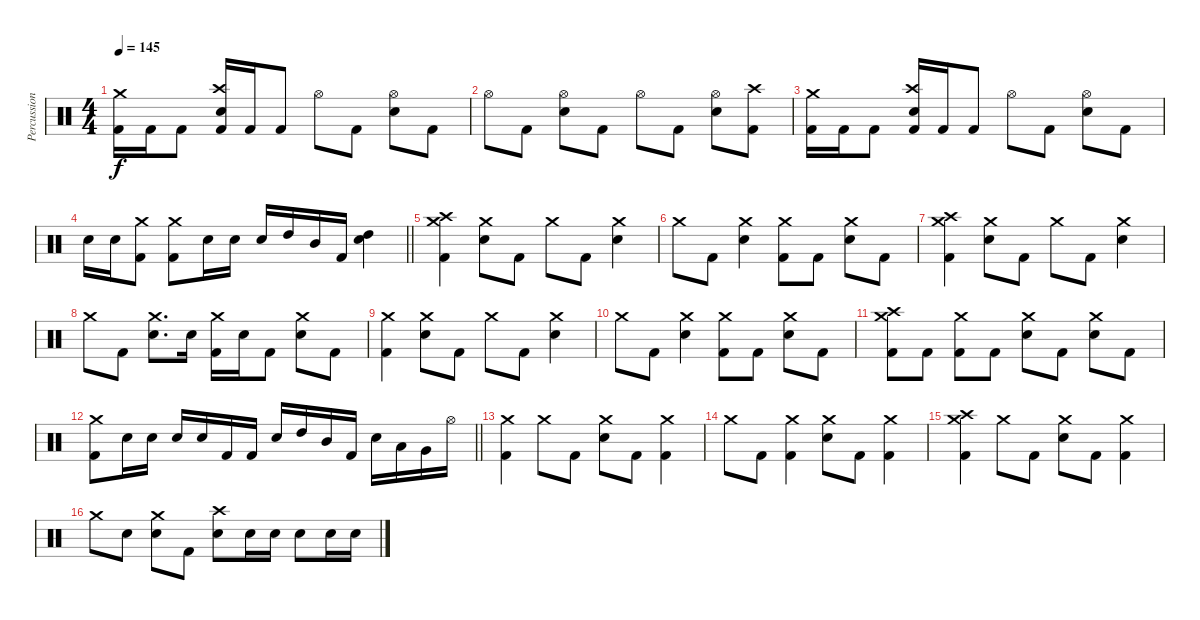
\track ("Percussion" "Percussion") {instrument percussion}
\staff {score}
\articulation defaults
\ts (4 4)
\tempo 145
\clef neutral
\ks c
("Crash medium (hit)" "Kick (hit) 2").16{dy f} "Kick (hit) 2".16 "Kick (hit) 2".8 ("Crash high (hit)" "Electric Snare (hit)" "Kick (hit) 2").16 "Kick (hit) 2".16 "Kick (hit) 2".8 "Hi-Hat (open)".8 "Kick (hit) 2".8 ("Hi-Hat (open)" "Electric Snare (hit)").8 "Kick (hit) 2".8 |
"Hi-Hat (open)".8 "Kick (hit) 2".8 ("Hi-Hat (open)" "Electric Snare (hit)").8 "Kick (hit) 2".8 "Hi-Hat (open)".8 "Kick (hit) 2".8 ("Hi-Hat (open)" "Electric Snare (hit)").8 ("Crash high (hit)" "Kick (hit) 2").8 |
("Crash medium (hit)" "Kick (hit) 2").16 "Kick (hit) 2".16 "Kick (hit) 2".8 ("Crash high (hit)" "Electric Snare (hit)" "Kick (hit) 2").16 "Kick (hit) 2".16 "Kick (hit) 2".8 "Hi-Hat (open)".8 "Kick (hit) 2".8 ("Hi-Hat (open)" "Electric Snare (hit)").8 "Kick (hit) 2".8 |
\barLineRight lightlight "Electric Snare (hit)".16 "Electric Snare (hit)".16
("Crash medium (hit)" "Kick (hit) 2").8 ("Crash medium (hit)" "Kick (hit) 2").8 "Electric Snare (hit)".16 "Electric Snare (hit)".16 "Electric Snare (hit)".16 "High Tom (hit)".16 "Mid Tom (hit)".16 "Kick (hit) 2".16 ("High Tom (hit)" "Electric Snare (hit)").4 |
\section ("" "")
("Crash medium (hit)" "Crash high (hit)" "Kick (hit) 2").4 ("Crash medium (hit)" "Electric Snare (hit)").8 "Kick (hit) 2".8 "Crash medium (hit)".8 "Kick (hit) 2".8 ("Crash medium (hit)" "Electric Snare (hit)").4 |
"Crash medium (hit)".8 "Kick (hit) 2".8 ("Crash medium (hit)" "Electric Snare (hit)").4 ("Crash medium (hit)" "Kick (hit) 2").8 "Kick (hit) 2".8 ("Crash medium (hit)" "Electric Snare (hit)").8 "Kick (hit) 2".8 |
("Crash medium (hit)" "Crash high (hit)" "Kick (hit) 2").4 ("Crash medium (hit)" "Electric Snare (hit)").8 "Kick (hit) 2".8 "Crash medium (hit)".8 "Kick (hit) 2".8 ("Crash medium (hit)" "Electric Snare (hit)").4 |
"Crash medium (hit)".8 "Kick (hit) 2".8 ("Crash medium (hit)" "Electric Snare (hit)").8{d} "Electric Snare (hit)".16 ("Crash medium (hit)" "Kick (hit) 2").16 "Electric Snare (hit)".16 "Kick (hit) 2".8 ("Crash medium (hit)" "Electric Snare (hit)").8 "Kick (hit) 2".8 |
("Crash medium (hit)" "Kick (hit) 2").4 ("Crash medium (hit)" "Electric Snare (hit)").8 "Kick (hit) 2".8 "Crash medium (hit)".8 "Kick (hit) 2".8 ("Crash medium (hit)" "Electric Snare (hit)").4 |
"Crash medium (hit)".8 "Kick (hit) 2".8 ("Crash medium (hit)" "Electric Snare (hit)").4 ("Crash medium (hit)" "Kick (hit) 2").8 "Kick (hit) 2".8 ("Crash medium (hit)" "Electric Snare (hit)").8 "Kick (hit) 2".8 |
("Crash medium (hit)" "Crash high (hit)" "Kick (hit) 2").8 "Kick (hit) 2".8 ("Crash medium (hit)" "Kick (hit) 2").8 "Kick (hit) 2".8 ("Crash medium (hit)" "Electric Snare (hit)").8 "Kick (hit) 2".8 ("Crash medium (hit)" "Electric Snare (hit)").8 "Kick (hit) 2".8 |
\barLineRight lightlight
("Crash medium (hit)" "Kick (hit) 2").8 "Electric Snare (hit)".16 "Electric Snare (hit)".16 "Electric Snare (hit)".16 "Electric Snare (hit)".16 "Kick (hit) 2".16 "Kick (hit) 2".16 "Electric Snare (hit)".16 "High Tom (hit)".16 "Mid Tom (hit)".16 "Kick (hit) 2".16 "Electric Snare (hit)".16 "Low Tom (hit)".16 "Very Low Tom (hit)".16 "Hi-Hat (open)".16 |
("Crash medium (hit)" "Kick (hit) 2").4 "Crash medium (hit)".8 "Kick (hit) 2".8 ("Crash medium (hit)" "Electric Snare (hit)").8 "Kick (hit) 2".8 ("Crash medium (hit)" "Kick (hit) 2").4 |
"Crash medium (hit)".8 "Kick (hit) 2".8 ("Crash medium (hit)" "Kick (hit) 2").4 ("Crash medium (hit)" "Electric Snare (hit)").8 "Kick (hit) 2".8 ("Crash medium (hit)" "Kick (hit) 2").4 |
("Crash medium (hit)" "Crash high (hit)" "Kick (hit) 2").4 "Crash medium (hit)".8 "Kick (hit) 2".8 ("Crash medium (hit)" "Electric Snare (hit)").8 "Kick (hit) 2".8 ("Crash medium (hit)" "Kick (hit) 2").4 |
"Crash medium (hit)".8 "Electric Snare (hit)".8 ("Crash medium (hit)" "Electric Snare (hit)").8 "Kick (hit) 2".8 ("Crash high (hit)" "Electric Snare (hit)").8 "Electric Snare (hit)".16 "Electric Snare (hit)".16 "Electric Snare (hit)".8 "Electric Snare (hit)".16 "Electric Snare (hit)".16
